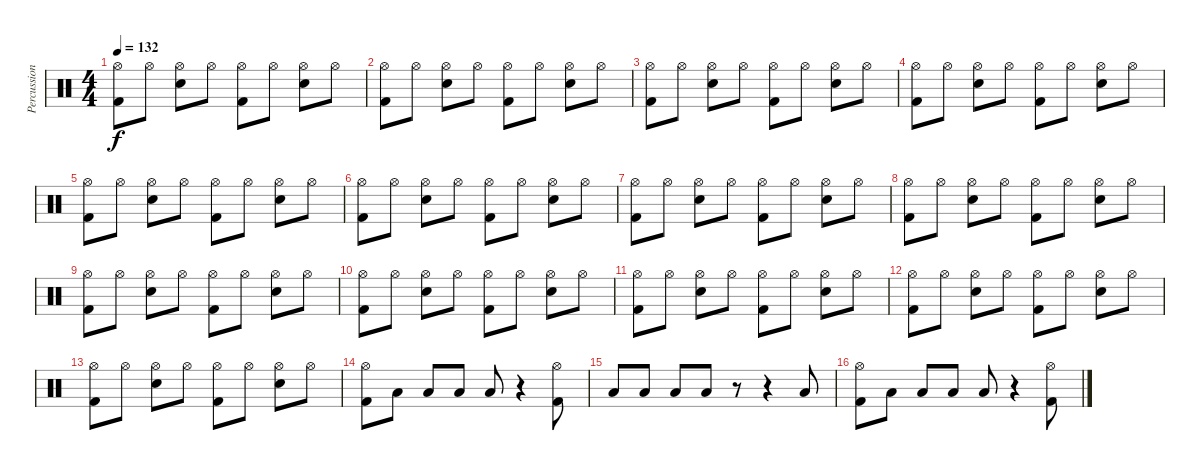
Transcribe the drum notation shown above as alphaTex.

\track ("Percussion" "Percussion") {instrument percussion}
\staff {score}
\articulation defaults
\ts (4 4)
\tempo 132
\clef neutral
\ks c
("Hi-Hat (open)" "Kick (hit) 2").8{dy f} "Hi-Hat (open)".8 ("Hi-Hat (open)" "Snare (hit) 2").8 "Hi-Hat (open)".8 ("Hi-Hat (open)" "Kick (hit) 2").8 "Hi-Hat (open)".8 ("Hi-Hat (open)" "Snare (hit) 2").8 "Hi-Hat (open)".8 |
("Hi-Hat (open)" "Kick (hit) 2").8 "Hi-Hat (open)".8 ("Hi-Hat (open)" "Snare (hit) 2").8 "Hi-Hat (open)".8 ("Hi-Hat (open)" "Kick (hit) 2").8 "Hi-Hat (open)".8 ("Hi-Hat (open)" "Snare (hit) 2").8 "Hi-Hat (open)".8 |
("Hi-Hat (open)" "Kick (hit) 2").8 "Hi-Hat (open)".8 ("Hi-Hat (open)" "Snare (hit) 2").8 "Hi-Hat (open)".8 ("Hi-Hat (open)" "Kick (hit) 2").8 "Hi-Hat (open)".8 ("Hi-Hat (open)" "Snare (hit) 2").8 "Hi-Hat (open)".8 |
("Hi-Hat (open)" "Kick (hit) 2").8 "Hi-Hat (open)".8 ("Hi-Hat (open)" "Snare (hit) 2").8 "Hi-Hat (open)".8 ("Hi-Hat (open)" "Kick (hit) 2").8 "Hi-Hat (open)".8 ("Hi-Hat (open)" "Snare (hit) 2").8 "Hi-Hat (open)".8 |
("Hi-Hat (open)" "Kick (hit) 2").8 "Hi-Hat (open)".8 ("Hi-Hat (open)" "Snare (hit) 2").8 "Hi-Hat (open)".8 ("Hi-Hat (open)" "Kick (hit) 2").8 "Hi-Hat (open)".8 ("Hi-Hat (open)" "Snare (hit) 2").8 "Hi-Hat (open)".8 |
("Hi-Hat (open)" "Kick (hit) 2").8 "Hi-Hat (open)".8 ("Hi-Hat (open)" "Snare (hit) 2").8 "Hi-Hat (open)".8 ("Hi-Hat (open)" "Kick (hit) 2").8 "Hi-Hat (open)".8 ("Hi-Hat (open)" "Snare (hit) 2").8 "Hi-Hat (open)".8 |
("Hi-Hat (open)" "Kick (hit) 2").8 "Hi-Hat (open)".8 ("Hi-Hat (open)" "Snare (hit) 2").8 "Hi-Hat (open)".8 ("Hi-Hat (open)" "Kick (hit) 2").8 "Hi-Hat (open)".8 ("Hi-Hat (open)" "Snare (hit) 2").8 "Hi-Hat (open)".8 |
("Hi-Hat (open)" "Kick (hit) 2").8 "Hi-Hat (open)".8 ("Hi-Hat (open)" "Snare (hit) 2").8 "Hi-Hat (open)".8 ("Hi-Hat (open)" "Kick (hit) 2").8 "Hi-Hat (open)".8 ("Hi-Hat (open)" "Snare (hit) 2").8 "Hi-Hat (open)".8 |
("Hi-Hat (open)" "Kick (hit) 2").8 "Hi-Hat (open)".8 ("Hi-Hat (open)" "Snare (hit) 2").8 "Hi-Hat (open)".8 ("Hi-Hat (open)" "Kick (hit) 2").8 "Hi-Hat (open)".8 ("Hi-Hat (open)" "Snare (hit) 2").8 "Hi-Hat (open)".8 |
("Hi-Hat (open)" "Kick (hit) 2").8 "Hi-Hat (open)".8 ("Hi-Hat (open)" "Snare (hit) 2").8 "Hi-Hat (open)".8 ("Hi-Hat (open)" "Kick (hit) 2").8 "Hi-Hat (open)".8 ("Hi-Hat (open)" "Snare (hit) 2").8 "Hi-Hat (open)".8 |
("Hi-Hat (open)" "Kick (hit) 2").8 "Hi-Hat (open)".8 ("Hi-Hat (open)" "Snare (hit) 2").8 "Hi-Hat (open)".8 ("Hi-Hat (open)" "Kick (hit) 2").8 "Hi-Hat (open)".8 ("Hi-Hat (open)" "Snare (hit) 2").8 "Hi-Hat (open)".8 |
("Hi-Hat (open)" "Kick (hit) 2").8 "Hi-Hat (open)".8 ("Hi-Hat (open)" "Snare (hit) 2").8 "Hi-Hat (open)".8 ("Hi-Hat (open)" "Kick (hit) 2").8 "Hi-Hat (open)".8 ("Hi-Hat (open)" "Snare (hit) 2").8 "Hi-Hat (open)".8 |
("Hi-Hat (open)" "Kick (hit) 2").8 "Hi-Hat (open)".8 ("Hi-Hat (open)" "Snare (hit) 2").8 "Hi-Hat (open)".8 ("Hi-Hat (open)" "Kick (hit) 2").8 "Hi-Hat (open)".8 ("Hi-Hat (open)" "Snare (hit) 2").8 "Hi-Hat (open)".8 |
("Hi-Hat (open)" "Kick (hit) 2").8 "Low Tom (hit)".8 "Low Tom (hit)".8 "Low Tom (hit)".8 "Low Tom (hit)".8 r.4 ("Hi-Hat (open)" "Kick (hit) 2").8 |
"Low Tom (hit)".8 "Low Tom (hit)".8 "Low Tom (hit)".8 "Low Tom (hit)".8 r.8 r.4 "Low Tom (hit)".8 |
("Hi-Hat (open)" "Kick (hit) 2").8 "Low Tom (hit)".8 "Low Tom (hit)".8 "Low Tom (hit)".8 "Low Tom (hit)".8 r.4 ("Hi-Hat (open)" "Kick (hit) 2").8
